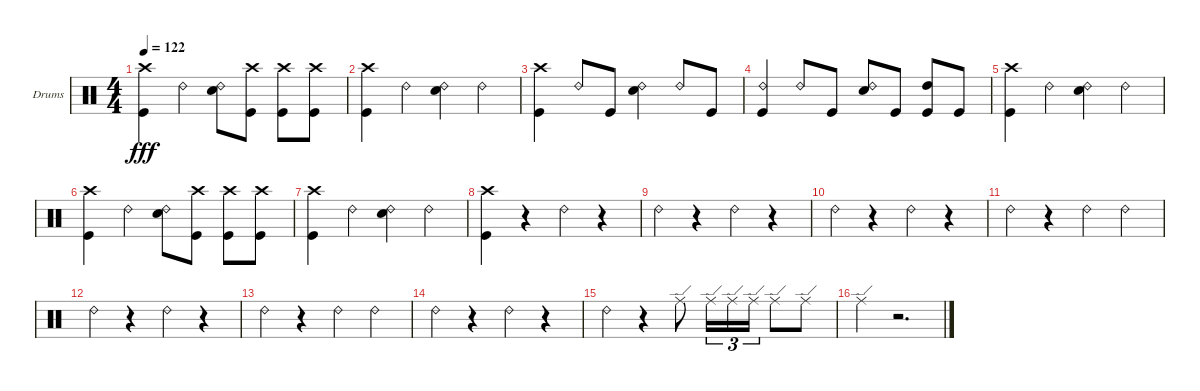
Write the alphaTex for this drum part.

\bracketExtendMode groupsimilarinstruments
\firstSystemTrackNameOrientation horizontal
\otherSystemsTrackNameOrientation horizontal
\track ("Drumkit" "Drums") {instrument percussion}
\staff {score}
\articulation defaults
\ts (4 4)
\tempo 122
\clef neutral
\ks c
("Kick (hit)" "Crash high (hit)").4{dy fff} "Ride (bell) 2".4 ("Snare (hit) 2" "Ride (bell) 2").8 ("Kick (hit)" "Crash high (hit)").8 ("Kick (hit)" "Crash high (hit)").8 ("Kick (hit)" "Crash high (hit)").8 |
("Kick (hit)" "Crash high (hit)").4 "Ride (bell) 2".4 ("Ride (bell) 2" "Snare (hit) 2").4 "Ride (bell) 2".4 |
("Crash high (hit)" "Kick (hit)").4 "Ride (bell) 2".8 "Kick (hit)".8 ("Ride (bell) 2" "Snare (hit) 2").4 "Ride (bell) 2".8 "Kick (hit)".8 |
("Kick (hit)" "Ride (bell) 2").4 "Ride (bell) 2".8 "Kick (hit)".8 ("Snare (hit) 2" "Ride (bell) 2").8 "Kick (hit)".8 ("Kick (hit)" "High Tom (hit)").8 "Kick (hit)".8 |
("Crash high (hit)" "Kick (hit)").4 "Ride (bell) 2".4 ("Ride (bell) 2" "Snare (hit) 2").4 "Ride (bell) 2".4 |
("Kick (hit)" "Crash high (hit)").4 "Ride (bell) 2".4 ("Snare (hit) 2" "Ride (bell) 2").8 ("Kick (hit)" "Crash high (hit)").8 ("Kick (hit)" "Crash high (hit)").8 ("Kick (hit)" "Crash high (hit)").8 |
("Crash high (hit)" "Kick (hit)").4 "Ride (bell) 2".4 ("Ride (bell) 2" "Snare (hit) 2").4 "Ride (bell) 2".4 |
("Kick (hit)" "Crash high (hit)").4 r.4 "Ride (bell) 2".4 r.4 |
"Ride (bell) 2".4 r.4 "Ride (bell) 2".4 r.4 |
"Ride (bell) 2".4 r.4 "Ride (bell) 2".4 r.4 |
"Ride (bell) 2".4 r.4 "Ride (bell) 2".4 "Ride (bell) 2".4 |
"Ride (bell) 2".4 r.4 "Ride (bell) 2".4 r.4 |
"Ride (bell) 2".4 r.4 "Ride (bell) 2".4 "Ride (bell) 2".4 |
"Ride (bell) 2".4 r.4 "Ride (bell) 2".4 r.4 |
"Ride (bell) 2".4 r.4 "Ride (edge)".8 "Ride (edge)".16{tu (3 2)} "Ride (edge)".16{tu (3 2)} "Ride (edge)".16{tu (3 2)} "Ride (edge)".8 "Ride (edge)".8 |
"Ride (edge)".4 r.2{d}
